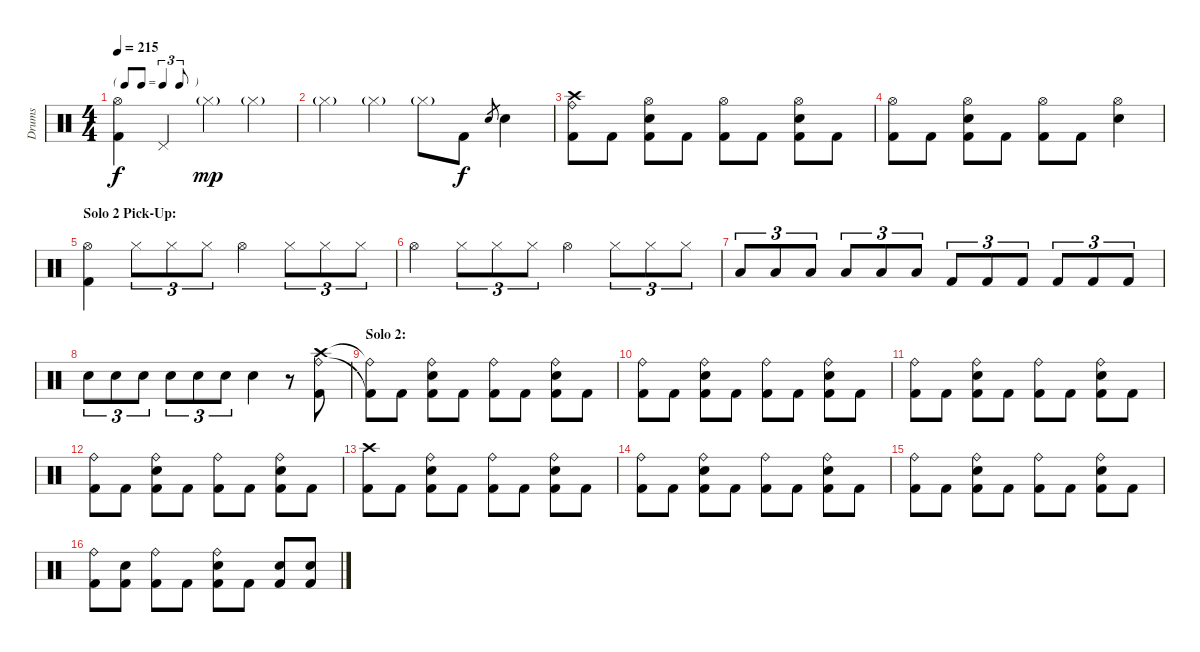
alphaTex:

\track ("Drums" "Drums") {instrument percussion}
\staff {score}
\articulation defaults
\ts (4 4)
\tf triplet8th
\tempo 215
\clef neutral
\ks c
("Hi-Hat (open)" "Kick (hit) 2").4{dy f} "Pedal Hi-Hat (hit)".4 "Hi-Hat (closed)"{g}.4{dy mp} "Hi-Hat (closed)"{g}.4 |
"Hi-Hat (closed)"{g}.4 "Hi-Hat (closed)"{g}.4 "Hi-Hat (closed)"{g}.8 "Kick (hit) 2".8{dy f} "Electric Snare (hit)".8{gr} "Electric Snare (hit)".4 |
("Crash high (hit)" "Ride (bell)" "Kick (hit) 2").8 "Kick (hit) 2".8 ("Hi-Hat (open)" "Electric Snare (hit)" "Kick (hit) 2").8 "Kick (hit) 2".8 ("Hi-Hat (open)" "Kick (hit) 2").8 "Kick (hit) 2".8 ("Hi-Hat (open)" "Electric Snare (hit)" "Kick (hit) 2").8 "Kick (hit) 2".8 |
("Hi-Hat (open)" "Kick (hit) 2").8 "Kick (hit) 2".8 ("Hi-Hat (open)" "Electric Snare (hit)" "Kick (hit) 2").8 "Kick (hit) 2".8 ("Hi-Hat (open)" "Kick (hit) 2").8 "Kick (hit) 2".8 ("Hi-Hat (open)" "Electric Snare (hit)").4 |
\section ("" "Solo 2 Pick-Up:")
("Hi-Hat (open)" "Kick (hit) 2").4 "Hi-Hat (closed)".8{tu (3 2)} "Hi-Hat (closed)".8{tu (3 2)} "Hi-Hat (closed)".8{tu (3 2)} "Hi-Hat (open)".4 "Hi-Hat (closed)".8{tu (3 2)} "Hi-Hat (closed)".8{tu (3 2)} "Hi-Hat (closed)".8{tu (3 2)} |
"Hi-Hat (open)".4 "Hi-Hat (closed)".8{tu (3 2)} "Hi-Hat (closed)".8{tu (3 2)} "Hi-Hat (closed)".8{tu (3 2)} "Hi-Hat (open)".4 "Hi-Hat (closed)".8{tu (3 2)} "Hi-Hat (closed)".8{tu (3 2)} "Hi-Hat (closed)".8{tu (3 2)} |
"Low Tom (hit)".8{tu (3 2)} "Low Tom (hit)".8{tu (3 2)} "Low Tom (hit)".8{tu (3 2)} "Low Tom (hit)".8{tu (3 2)} "Low Tom (hit)".8{tu (3 2)} "Low Tom (hit)".8{tu (3 2)} "Kick (hit) 2".8{tu (3 2)} "Kick (hit) 2".8{tu (3 2)} "Kick (hit) 2".8{tu (3 2)} "Kick (hit) 2".8{tu (3 2)} "Kick (hit) 2".8{tu (3 2)} "Kick (hit) 2".8{tu (3 2)} |
"Electric Snare (hit)".8{tu (3 2)} "Electric Snare (hit)".8{tu (3 2)} "Electric Snare (hit)".8{tu (3 2)} "Electric Snare (hit)".8{tu (3 2)} "Electric Snare (hit)".8{tu (3 2)} "Electric Snare (hit)".8{tu (3 2)} "Electric Snare (hit)".4 r.8 ("Crash high (hit)" "Ride (bell)" "Kick (hit) 2").8 |
\section ("" "Solo 2:")
("Ride (bell)"{t} "Kick (hit) 2"{t}).8 "Kick (hit) 2".8 ("Ride (bell)" "Electric Snare (hit)" "Kick (hit) 2").8 "Kick (hit) 2".8 ("Ride (bell)" "Kick (hit) 2").8 "Kick (hit) 2".8 ("Ride (bell)" "Electric Snare (hit)" "Kick (hit) 2").8 "Kick (hit) 2".8 |
("Ride (bell)" "Kick (hit) 2").8 "Kick (hit) 2".8 ("Ride (bell)" "Electric Snare (hit)" "Kick (hit) 2").8 "Kick (hit) 2".8 ("Ride (bell)" "Kick (hit) 2").8 "Kick (hit) 2".8 ("Ride (bell)" "Electric Snare (hit)" "Kick (hit) 2").8 "Kick (hit) 2".8 |
("Ride (bell)" "Kick (hit) 2").8 "Kick (hit) 2".8 ("Ride (bell)" "Electric Snare (hit)" "Kick (hit) 2").8 "Kick (hit) 2".8 ("Ride (bell)" "Kick (hit) 2").8 "Kick (hit) 2".8 ("Ride (bell)" "Electric Snare (hit)" "Kick (hit) 2").8 "Kick (hit) 2".8 |
("Ride (bell)" "Kick (hit) 2").8 "Kick (hit) 2".8 ("Ride (bell)" "Electric Snare (hit)" "Kick (hit) 2").8 "Kick (hit) 2".8 ("Ride (bell)" "Kick (hit) 2").8 "Kick (hit) 2".8 ("Ride (bell)" "Electric Snare (hit)" "Kick (hit) 2").8 "Kick (hit) 2".8 |
("Crash high (hit)" "Kick (hit) 2").8 "Kick (hit) 2".8 ("Ride (bell)" "Electric Snare (hit)" "Kick (hit) 2").8 "Kick (hit) 2".8 ("Ride (bell)" "Kick (hit) 2").8 "Kick (hit) 2".8 ("Ride (bell)" "Electric Snare (hit)" "Kick (hit) 2").8 "Kick (hit) 2".8 |
("Ride (bell)" "Kick (hit) 2").8 "Kick (hit) 2".8 ("Ride (bell)" "Electric Snare (hit)" "Kick (hit) 2").8 "Kick (hit) 2".8 ("Ride (bell)" "Kick (hit) 2").8 "Kick (hit) 2".8 ("Ride (bell)" "Electric Snare (hit)" "Kick (hit) 2").8 "Kick (hit) 2".8 |
("Ride (bell)" "Kick (hit) 2").8 "Kick (hit) 2".8 ("Ride (bell)" "Electric Snare (hit)" "Kick (hit) 2").8 "Kick (hit) 2".8 ("Ride (bell)" "Kick (hit) 2").8 "Kick (hit) 2".8 ("Ride (bell)" "Electric Snare (hit)" "Kick (hit) 2").8 "Kick (hit) 2".8 |
("Ride (bell)" "Kick (hit) 2").8 ("Electric Snare (hit)" "Kick (hit) 2").8 ("Ride (bell)" "Kick (hit) 2").8 "Kick (hit) 2".8 ("Ride (bell)" "Electric Snare (hit)" "Kick (hit) 2").8 "Kick (hit) 2".8 ("Electric Snare (hit)" "Kick (hit) 2").8 ("Electric Snare (hit)" "Kick (hit) 2").8
